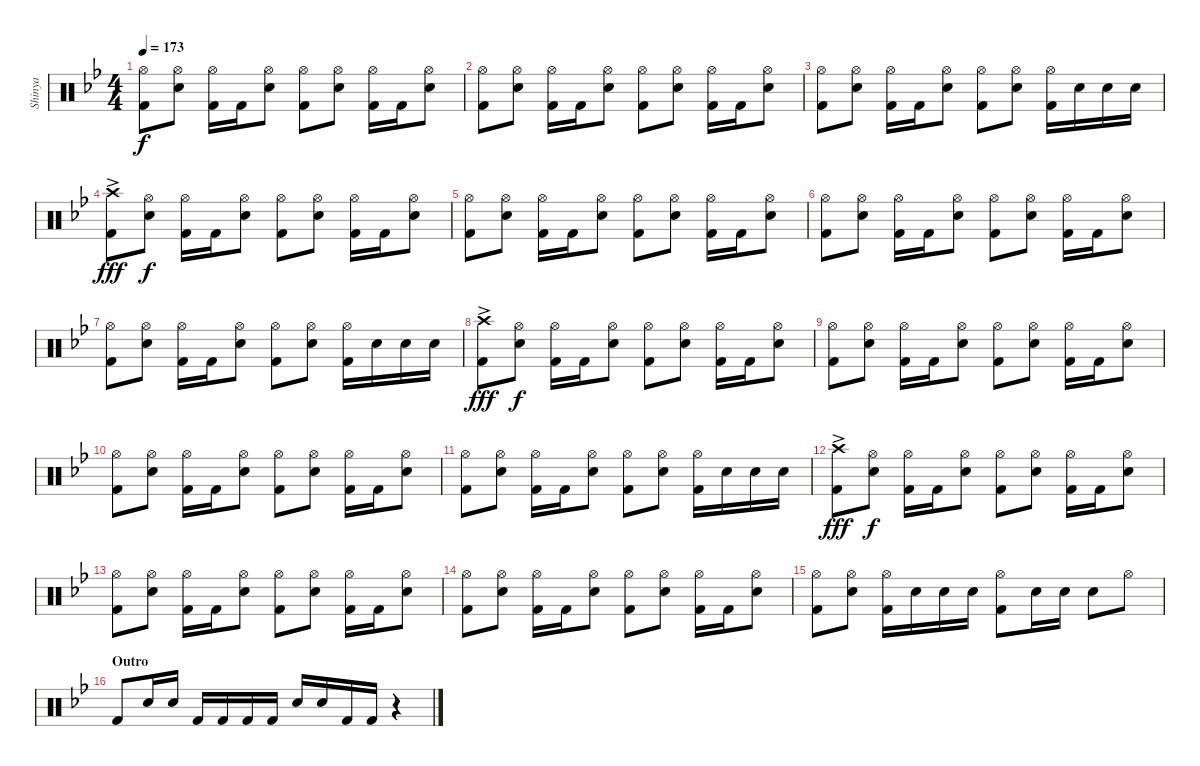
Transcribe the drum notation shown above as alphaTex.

\track ("Shinya" "Shinya") {instrument percussion}
\staff {score}
\articulation defaults
\ts (4 4)
\tempo 173
\clef neutral
\ks bb
("Hi-Hat (open)" "Kick (hit) 2").8{dy f} ("Hi-Hat (open)" "Snare (hit) 2").8 ("Hi-Hat (open)" "Kick (hit) 2").16 "Kick (hit) 2".16 ("Hi-Hat (open)" "Snare (hit) 2").8 ("Hi-Hat (open)" "Kick (hit) 2").8 ("Hi-Hat (open)" "Snare (hit) 2").8 ("Hi-Hat (open)" "Kick (hit) 2").16 "Kick (hit) 2".16 ("Hi-Hat (open)" "Snare (hit) 2").8 |
("Hi-Hat (open)" "Kick (hit) 2").8 ("Hi-Hat (open)" "Snare (hit) 2").8 ("Hi-Hat (open)" "Kick (hit) 2").16 "Kick (hit) 2".16 ("Hi-Hat (open)" "Snare (hit) 2").8 ("Hi-Hat (open)" "Kick (hit) 2").8 ("Hi-Hat (open)" "Snare (hit) 2").8 ("Hi-Hat (open)" "Kick (hit) 2").16 "Kick (hit) 2".16 ("Hi-Hat (open)" "Snare (hit) 2").8 |
("Hi-Hat (open)" "Kick (hit) 2").8 ("Hi-Hat (open)" "Snare (hit) 2").8 ("Hi-Hat (open)" "Kick (hit) 2").16 "Kick (hit) 2".16 ("Hi-Hat (open)" "Snare (hit) 2").8 ("Hi-Hat (open)" "Kick (hit) 2").8 ("Hi-Hat (open)" "Snare (hit) 2").8 ("Hi-Hat (open)" "Kick (hit) 2").16 "Snare (hit) 2".16 "Snare (hit) 2".16 "Snare (hit) 2".16 |
("Crash high (hit)"{ac} "Kick (hit) 2").8{dy fff} ("Hi-Hat (open)" "Snare (hit) 2").8{dy f} ("Hi-Hat (open)" "Kick (hit) 2").16 "Kick (hit) 2".16 ("Hi-Hat (open)" "Snare (hit) 2").8 ("Hi-Hat (open)" "Kick (hit) 2").8 ("Hi-Hat (open)" "Snare (hit) 2").8 ("Hi-Hat (open)" "Kick (hit) 2").16 "Kick (hit) 2".16 ("Hi-Hat (open)" "Snare (hit) 2").8 |
("Hi-Hat (open)" "Kick (hit) 2").8 ("Hi-Hat (open)" "Snare (hit) 2").8 ("Hi-Hat (open)" "Kick (hit) 2").16 "Kick (hit) 2".16 ("Hi-Hat (open)" "Snare (hit) 2").8 ("Hi-Hat (open)" "Kick (hit) 2").8 ("Hi-Hat (open)" "Snare (hit) 2").8 ("Hi-Hat (open)" "Kick (hit) 2").16 "Kick (hit) 2".16 ("Hi-Hat (open)" "Snare (hit) 2").8 |
("Hi-Hat (open)" "Kick (hit) 2").8 ("Hi-Hat (open)" "Snare (hit) 2").8 ("Hi-Hat (open)" "Kick (hit) 2").16 "Kick (hit) 2".16 ("Hi-Hat (open)" "Snare (hit) 2").8 ("Hi-Hat (open)" "Kick (hit) 2").8 ("Hi-Hat (open)" "Snare (hit) 2").8 ("Hi-Hat (open)" "Kick (hit) 2").16 "Kick (hit) 2".16 ("Hi-Hat (open)" "Snare (hit) 2").8 |
("Hi-Hat (open)" "Kick (hit) 2").8 ("Hi-Hat (open)" "Snare (hit) 2").8 ("Hi-Hat (open)" "Kick (hit) 2").16 "Kick (hit) 2".16 ("Hi-Hat (open)" "Snare (hit) 2").8 ("Hi-Hat (open)" "Kick (hit) 2").8 ("Hi-Hat (open)" "Snare (hit) 2").8 ("Hi-Hat (open)" "Kick (hit) 2").16 "Snare (hit) 2".16 "Snare (hit) 2".16 "Snare (hit) 2".16 |
("Crash high (hit)"{ac} "Kick (hit) 2").8{dy fff} ("Hi-Hat (open)" "Snare (hit) 2").8{dy f} ("Hi-Hat (open)" "Kick (hit) 2").16 "Kick (hit) 2".16 ("Hi-Hat (open)" "Snare (hit) 2").8 ("Hi-Hat (open)" "Kick (hit) 2").8 ("Hi-Hat (open)" "Snare (hit) 2").8 ("Hi-Hat (open)" "Kick (hit) 2").16 "Kick (hit) 2".16 ("Hi-Hat (open)" "Snare (hit) 2").8 |
("Hi-Hat (open)" "Kick (hit) 2").8 ("Hi-Hat (open)" "Snare (hit) 2").8 ("Hi-Hat (open)" "Kick (hit) 2").16 "Kick (hit) 2".16 ("Hi-Hat (open)" "Snare (hit) 2").8 ("Hi-Hat (open)" "Kick (hit) 2").8 ("Hi-Hat (open)" "Snare (hit) 2").8 ("Hi-Hat (open)" "Kick (hit) 2").16 "Kick (hit) 2".16 ("Hi-Hat (open)" "Snare (hit) 2").8 |
("Hi-Hat (open)" "Kick (hit) 2").8 ("Hi-Hat (open)" "Snare (hit) 2").8 ("Hi-Hat (open)" "Kick (hit) 2").16 "Kick (hit) 2".16 ("Hi-Hat (open)" "Snare (hit) 2").8 ("Hi-Hat (open)" "Kick (hit) 2").8 ("Hi-Hat (open)" "Snare (hit) 2").8 ("Hi-Hat (open)" "Kick (hit) 2").16 "Kick (hit) 2".16 ("Hi-Hat (open)" "Snare (hit) 2").8 |
("Hi-Hat (open)" "Kick (hit) 2").8 ("Hi-Hat (open)" "Snare (hit) 2").8 ("Hi-Hat (open)" "Kick (hit) 2").16 "Kick (hit) 2".16 ("Hi-Hat (open)" "Snare (hit) 2").8 ("Hi-Hat (open)" "Kick (hit) 2").8 ("Hi-Hat (open)" "Snare (hit) 2").8 ("Hi-Hat (open)" "Kick (hit) 2").16 "Snare (hit) 2".16 "Snare (hit) 2".16 "Snare (hit) 2".16 |
("Crash high (hit)"{ac} "Kick (hit) 2").8{dy fff} ("Hi-Hat (open)" "Snare (hit) 2").8{dy f} ("Hi-Hat (open)" "Kick (hit) 2").16 "Kick (hit) 2".16 ("Hi-Hat (open)" "Snare (hit) 2").8 ("Hi-Hat (open)" "Kick (hit) 2").8 ("Hi-Hat (open)" "Snare (hit) 2").8 ("Hi-Hat (open)" "Kick (hit) 2").16 "Kick (hit) 2".16 ("Hi-Hat (open)" "Snare (hit) 2").8 |
("Hi-Hat (open)" "Kick (hit) 2").8 ("Hi-Hat (open)" "Snare (hit) 2").8 ("Hi-Hat (open)" "Kick (hit) 2").16 "Kick (hit) 2".16 ("Hi-Hat (open)" "Snare (hit) 2").8 ("Hi-Hat (open)" "Kick (hit) 2").8 ("Hi-Hat (open)" "Snare (hit) 2").8 ("Hi-Hat (open)" "Kick (hit) 2").16 "Kick (hit) 2".16 ("Hi-Hat (open)" "Snare (hit) 2").8 |
("Hi-Hat (open)" "Kick (hit) 2").8 ("Hi-Hat (open)" "Snare (hit) 2").8 ("Hi-Hat (open)" "Kick (hit) 2").16 "Kick (hit) 2".16 ("Hi-Hat (open)" "Snare (hit) 2").8 ("Hi-Hat (open)" "Kick (hit) 2").8 ("Hi-Hat (open)" "Snare (hit) 2").8 ("Hi-Hat (open)" "Kick (hit) 2").16 "Kick (hit) 2".16 ("Hi-Hat (open)" "Snare (hit) 2").8 |
("Hi-Hat (open)" "Kick (hit) 2").8 ("Hi-Hat (open)" "Snare (hit) 2").8 ("Hi-Hat (open)" "Kick (hit) 2").16 "Snare (hit) 2".16 "Snare (hit) 2".16 "Snare (hit) 2".16 ("Hi-Hat (open)" "Kick (hit) 2").8 "Snare (hit) 2".16 "Snare (hit) 2".16 "Snare (hit) 2".8 "Hi-Hat (open)".8 |
\section ("" "Outro")
"Kick (hit) 2".8 "Snare (hit) 2".16 "Snare (hit) 2".16 "Kick (hit) 2".16 "Kick (hit) 2".16 "Kick (hit) 2".16 "Kick (hit) 2".16 "Snare (hit) 2".16 "Snare (hit) 2".16 "Kick (hit) 2".16 "Kick (hit) 2".16 r.4
